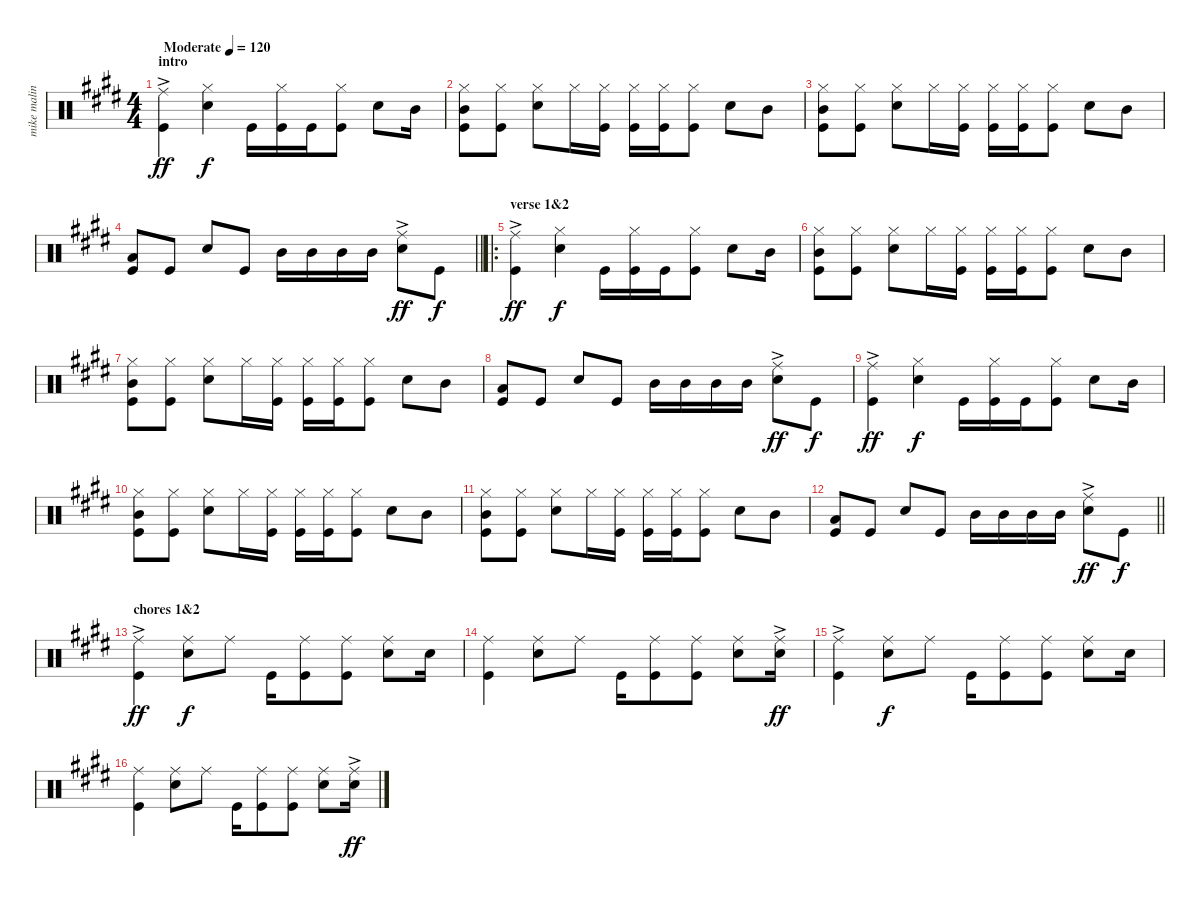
\track ("mike malinin(drums)" "mike malin") {instrument percussion}
\staff {score}
\articulation defaults
\ts (4 4)
\section ("" "intro")
\tempo (120 "Moderate")
\clef neutral
\ks e
("Ride (middle)"{ac} "Kick (hit)").4{dy ff} ("Snare (hit) 2" "Hi-Hat (closed)").4{dy f} "Kick (hit)".16 ("Hi-Hat (closed)" "Kick (hit)").16 "Kick (hit)".16 ("Hi-Hat (closed)" "Kick (hit)").8 "Snare (hit) 2".8 "Mid Tom (hit)".16 |
("Hi-Hat (closed)" "Mid Tom (hit)" "Kick (hit)").8 ("Hi-Hat (closed)" "Kick (hit)").8 ("Hi-Hat (closed)" "Snare (hit) 2").8 "Hi-Hat (closed)".16 ("Hi-Hat (closed)" "Kick (hit)").16 ("Hi-Hat (closed)" "Kick (hit)").16 ("Hi-Hat (closed)" "Kick (hit)").16 ("Hi-Hat (closed)" "Kick (hit)").8 "Snare (hit) 2".8 "Mid Tom (hit)".8 |
("Hi-Hat (closed)" "Mid Tom (hit)" "Kick (hit)").8 ("Hi-Hat (closed)" "Kick (hit)").8 ("Hi-Hat (closed)" "Snare (hit) 2").8 "Hi-Hat (closed)".16 ("Hi-Hat (closed)" "Kick (hit)").16 ("Hi-Hat (closed)" "Kick (hit)").16 ("Hi-Hat (closed)" "Kick (hit)").16 ("Hi-Hat (closed)" "Kick (hit)").8 "Snare (hit) 2".8 "Mid Tom (hit)".8 |
\barLineRight lightlight
("Kick (hit)" "Low Tom (hit)").8 "Kick (hit)".8 "Snare (hit) 2".8 "Kick (hit)".8 "Mid Tom (hit)".16 "Mid Tom (hit)".16 "Mid Tom (hit)".16 "Mid Tom (hit)".16 ("Ride (middle)"{ac} "Snare (hit) 2").8{dy ff} "Kick (hit)".8{dy f} |
\ro
\section ("" "verse 1&2")
("Ride (middle)"{ac} "Kick (hit)").4{dy ff} ("Snare (hit) 2" "Hi-Hat (closed)").4{dy f} "Kick (hit)".16 ("Hi-Hat (closed)" "Kick (hit)").16 "Kick (hit)".16 ("Hi-Hat (closed)" "Kick (hit)").8 "Snare (hit) 2".8 "Mid Tom (hit)".16 |
("Hi-Hat (closed)" "Mid Tom (hit)" "Kick (hit)").8 ("Hi-Hat (closed)" "Kick (hit)").8 ("Hi-Hat (closed)" "Snare (hit) 2").8 "Hi-Hat (closed)".16 ("Hi-Hat (closed)" "Kick (hit)").16 ("Hi-Hat (closed)" "Kick (hit)").16 ("Hi-Hat (closed)" "Kick (hit)").16 ("Hi-Hat (closed)" "Kick (hit)").8 "Snare (hit) 2".8 "Mid Tom (hit)".8 |
("Hi-Hat (closed)" "Mid Tom (hit)" "Kick (hit)").8 ("Hi-Hat (closed)" "Kick (hit)").8 ("Hi-Hat (closed)" "Snare (hit) 2").8 "Hi-Hat (closed)".16 ("Hi-Hat (closed)" "Kick (hit)").16 ("Hi-Hat (closed)" "Kick (hit)").16 ("Hi-Hat (closed)" "Kick (hit)").16 ("Hi-Hat (closed)" "Kick (hit)").8 "Snare (hit) 2".8 "Mid Tom (hit)".8 |
("Kick (hit)" "Low Tom (hit)").8 "Kick (hit)".8 "Snare (hit) 2".8 "Kick (hit)".8 "Mid Tom (hit)".16 "Mid Tom (hit)".16 "Mid Tom (hit)".16 "Mid Tom (hit)".16 ("Ride (middle)"{ac} "Snare (hit) 2").8{dy ff} "Kick (hit)".8{dy f} |
("Ride (middle)"{ac} "Kick (hit)").4{dy ff} ("Snare (hit) 2" "Hi-Hat (closed)").4{dy f} "Kick (hit)".16 ("Hi-Hat (closed)" "Kick (hit)").16 "Kick (hit)".16 ("Hi-Hat (closed)" "Kick (hit)").8 "Snare (hit) 2".8 "Mid Tom (hit)".16 |
("Hi-Hat (closed)" "Mid Tom (hit)" "Kick (hit)").8 ("Hi-Hat (closed)" "Kick (hit)").8 ("Hi-Hat (closed)" "Snare (hit) 2").8 "Hi-Hat (closed)".16 ("Hi-Hat (closed)" "Kick (hit)").16 ("Hi-Hat (closed)" "Kick (hit)").16 ("Hi-Hat (closed)" "Kick (hit)").16 ("Hi-Hat (closed)" "Kick (hit)").8 "Snare (hit) 2".8 "Mid Tom (hit)".8 |
("Hi-Hat (closed)" "Mid Tom (hit)" "Kick (hit)").8 ("Hi-Hat (closed)" "Kick (hit)").8 ("Hi-Hat (closed)" "Snare (hit) 2").8 "Hi-Hat (closed)".16 ("Hi-Hat (closed)" "Kick (hit)").16 ("Hi-Hat (closed)" "Kick (hit)").16 ("Hi-Hat (closed)" "Kick (hit)").16 ("Hi-Hat (closed)" "Kick (hit)").8 "Snare (hit) 2".8 "Mid Tom (hit)".8 |
\barLineRight lightlight
("Kick (hit)" "Low Tom (hit)").8 "Kick (hit)".8 "Snare (hit) 2".8 "Kick (hit)".8 "Mid Tom (hit)".16 "Mid Tom (hit)".16 "Mid Tom (hit)".16 "Mid Tom (hit)".16 ("Ride (middle)"{ac} "Snare (hit) 2").8{dy ff} "Kick (hit)".8{dy f} |
\section ("" "chores 1&2")
("Kick (hit)"{ac} "Ride (middle)").4{dy ff} ("Ride (middle)" "Snare (hit) 2").8{dy f} "Ride (middle)".8 "Kick (hit)".16 ("Ride (middle)" "Kick (hit)").8 ("Ride (middle)" "Kick (hit)").8 ("Ride (middle)" "Snare (hit) 2").8 "Snare (hit) 2".16 |
("Kick (hit)" "Ride (middle)").4 ("Ride (middle)" "Snare (hit) 2").8 "Ride (middle)".8 "Kick (hit)".16 ("Ride (middle)" "Kick (hit)").8 ("Ride (middle)" "Kick (hit)").8 ("Ride (middle)" "Snare (hit) 2").8 ("Ride (middle)"{ac} "Snare (hit) 2").16{dy ff} |
("Kick (hit)"{ac} "Ride (middle)").4 ("Ride (middle)" "Snare (hit) 2").8{dy f} "Ride (middle)".8 "Kick (hit)".16 ("Ride (middle)" "Kick (hit)").8 ("Ride (middle)" "Kick (hit)").8 ("Ride (middle)" "Snare (hit) 2").8 "Snare (hit) 2".16 |
("Kick (hit)" "Ride (middle)").4 ("Ride (middle)" "Snare (hit) 2").8 "Ride (middle)".8 "Kick (hit)".16 ("Ride (middle)" "Kick (hit)").8 ("Ride (middle)" "Kick (hit)").8 ("Ride (middle)" "Snare (hit) 2").8 ("Ride (middle)"{ac} "Snare (hit) 2").16{dy ff}
